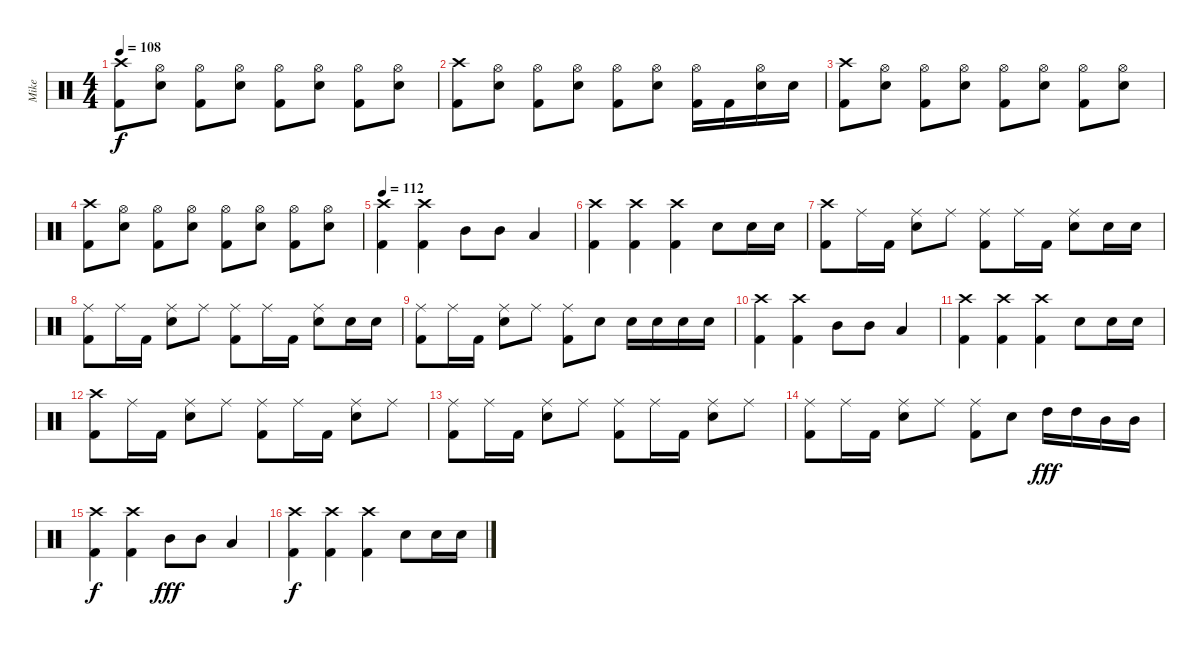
\track ("Mike" "Mike") {instrument percussion}
\staff {score}
\articulation defaults
\ts (4 4)
\tempo 108
\clef neutral
\ks c
("Crash high (hit)" "Kick (hit) 2").8{dy f} ("Hi-Hat (open)" "Snare (hit) 2").8 ("Hi-Hat (open)" "Kick (hit) 2").8 ("Hi-Hat (open)" "Snare (hit) 2").8 ("Hi-Hat (open)" "Kick (hit) 2").8 ("Hi-Hat (open)" "Snare (hit) 2").8 ("Hi-Hat (open)" "Kick (hit) 2").8 ("Hi-Hat (open)" "Snare (hit) 2").8 |
("Crash high (hit)" "Kick (hit) 2").8 ("Hi-Hat (open)" "Snare (hit) 2").8 ("Hi-Hat (open)" "Kick (hit) 2").8 ("Hi-Hat (open)" "Snare (hit) 2").8 ("Hi-Hat (open)" "Kick (hit) 2").8 ("Hi-Hat (open)" "Snare (hit) 2").8 ("Hi-Hat (open)" "Kick (hit) 2").16 "Kick (hit) 2".16 ("Hi-Hat (open)" "Snare (hit) 2").16 "Snare (hit) 2".16 |
("Crash high (hit)" "Kick (hit) 2").8 ("Hi-Hat (open)" "Snare (hit) 2").8 ("Hi-Hat (open)" "Kick (hit) 2").8 ("Hi-Hat (open)" "Snare (hit) 2").8 ("Hi-Hat (open)" "Kick (hit) 2").8 ("Hi-Hat (open)" "Snare (hit) 2").8 ("Hi-Hat (open)" "Kick (hit) 2").8 ("Hi-Hat (open)" "Snare (hit) 2").8 |
("Crash high (hit)" "Kick (hit) 2").8 ("Hi-Hat (open)" "Snare (hit) 2").8 ("Hi-Hat (open)" "Kick (hit) 2").8 ("Hi-Hat (open)" "Snare (hit) 2").8 ("Hi-Hat (open)" "Kick (hit) 2").8 ("Hi-Hat (open)" "Snare (hit) 2").8 ("Hi-Hat (open)" "Kick (hit) 2").8 ("Hi-Hat (open)" "Snare (hit) 2").8 |
\tempo 112
("Crash high (hit)" "Kick (hit) 2").4 ("Crash high (hit)" "Kick (hit) 2").4 "Mid Tom (hit)".8 "Mid Tom (hit)".8 "Low Tom (hit)".4 |
("Crash high (hit)" "Kick (hit) 2").4 ("Crash high (hit)" "Kick (hit) 2").4 ("Crash high (hit)" "Kick (hit) 2").4 "Snare (hit) 2".8 "Snare (hit) 2".16 "Snare (hit) 2".16 |
("Crash high (hit)" "Kick (hit) 2").8 "Ride (middle)".16 "Kick (hit) 2".16 ("Ride (middle)" "Snare (hit) 2").8 "Ride (middle)".8 ("Ride (middle)" "Kick (hit) 2").8 "Ride (middle)".16 "Kick (hit) 2".16 ("Ride (middle)" "Snare (hit) 2").8 "Snare (hit) 2".16 "Snare (hit) 2".16 |
("Ride (middle)" "Kick (hit) 2").8 "Ride (middle)".16 "Kick (hit) 2".16 ("Ride (middle)" "Snare (hit) 2").8 "Ride (middle)".8 ("Ride (middle)" "Kick (hit) 2").8 "Ride (middle)".16 "Kick (hit) 2".16 ("Ride (middle)" "Snare (hit) 2").8 "Snare (hit) 2".16 "Snare (hit) 2".16 |
("Ride (middle)" "Kick (hit) 2").8 "Ride (middle)".16 "Kick (hit) 2".16 ("Ride (middle)" "Snare (hit) 2").8 "Ride (middle)".8 ("Ride (middle)" "Kick (hit) 2").8 "Snare (hit) 2".8 "Snare (hit) 2".16 "Snare (hit) 2".16 "Snare (hit) 2".16 "Snare (hit) 2".16 |
("Crash high (hit)" "Kick (hit) 2").4 ("Crash high (hit)" "Kick (hit) 2").4 "Mid Tom (hit)".8 "Mid Tom (hit)".8 "Low Tom (hit)".4 |
("Crash high (hit)" "Kick (hit) 2").4 ("Crash high (hit)" "Kick (hit) 2").4 ("Crash high (hit)" "Kick (hit) 2").4 "Snare (hit) 2".8 "Snare (hit) 2".16 "Snare (hit) 2".16 |
("Crash high (hit)" "Kick (hit) 2").8 "Ride (middle)".16 "Kick (hit) 2".16 ("Ride (middle)" "Snare (hit) 2").8 "Ride (middle)".8 ("Ride (middle)" "Kick (hit) 2").8 "Ride (middle)".16 "Kick (hit) 2".16 ("Ride (middle)" "Snare (hit) 2").8 "Ride (middle)".8 |
("Ride (middle)" "Kick (hit) 2").8 "Ride (middle)".16 "Kick (hit) 2".16 ("Ride (middle)" "Snare (hit) 2").8 "Ride (middle)".8 ("Ride (middle)" "Kick (hit) 2").8 "Ride (middle)".16 "Kick (hit) 2".16 ("Ride (middle)" "Snare (hit) 2").8 "Ride (middle)".8 |
("Ride (middle)" "Kick (hit) 2").8 "Ride (middle)".16 "Kick (hit) 2".16 ("Ride (middle)" "Snare (hit) 2").8 "Ride (middle)".8 ("Ride (middle)" "Kick (hit) 2").8 "Snare (hit) 2".8 "High Tom (hit)".16{dy fff} "High Tom (hit)".16 "Mid Tom (hit)".16 "Mid Tom (hit)".16 |
("Crash high (hit)" "Kick (hit) 2").4{dy f} ("Crash high (hit)" "Kick (hit) 2").4 "Mid Tom (hit)".8{dy fff} "Mid Tom (hit)".8 "Low Tom (hit)".4 |
("Crash high (hit)" "Kick (hit) 2").4{dy f} ("Crash high (hit)" "Kick (hit) 2").4 ("Crash high (hit)" "Kick (hit) 2").4 "Snare (hit) 2".8 "Snare (hit) 2".16 "Snare (hit) 2".16
